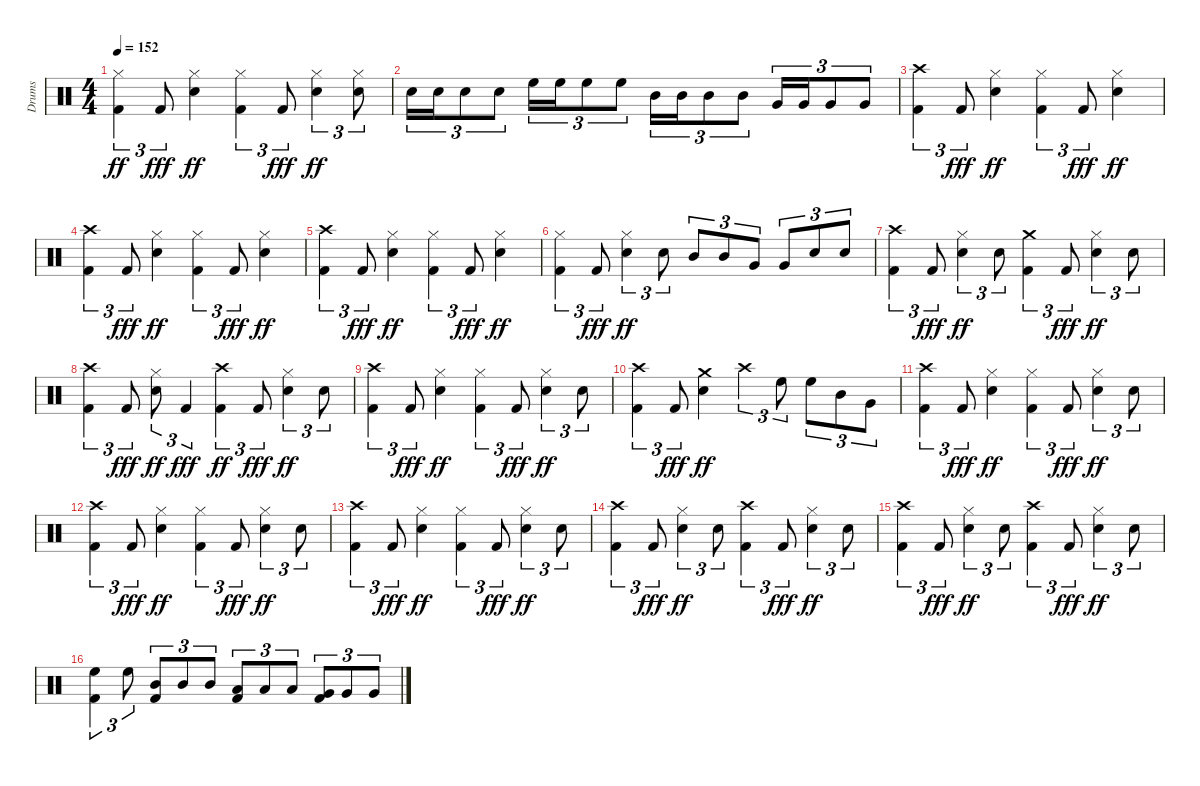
\track ("Drums" "Drums") {instrument percussion}
\staff {score}
\articulation defaults
\ts (4 4)
\tempo 152
\clef neutral
\ks c
("Kick (hit) 2" "Hi-Hat (closed)").4{tu (3 2) dy ff} "Kick (hit) 2".8{tu (3 2) dy fff} ("Snare (hit) 2" "Hi-Hat (closed)").4{dy ff} ("Kick (hit) 2" "Hi-Hat (closed)").4{tu (3 2)} "Kick (hit) 2".8{tu (3 2) dy fff} ("Snare (hit) 2" "Hi-Hat (closed)").4{tu (3 2) dy ff} ("Snare (hit) 2" "Hi-Hat (closed)").8{tu (3 2)} |
"Snare (hit) 2".16{tu (3 2)} "Snare (hit) 2".16{tu (3 2)} "Snare (hit) 2".8{tu (3 2)} "Snare (hit) 2".8{tu (3 2)} "High Floor Tom (hit)".16{tu (3 2)} "High Floor Tom (hit)".16{tu (3 2)} "High Floor Tom (hit)".8{tu (3 2)} "High Floor Tom (hit)".8{tu (3 2)} "Mid Tom (hit)".16{tu (3 2)} "Mid Tom (hit)".16{tu (3 2)} "Mid Tom (hit)".8{tu (3 2)} "Mid Tom (hit)".8{tu (3 2)} "Very Low Tom (hit)".16{tu (3 2)} "Very Low Tom (hit)".16{tu (3 2)} "Very Low Tom (hit)".8{tu (3 2)} "Very Low Tom (hit)".8{tu (3 2)} |
("Kick (hit) 2" "Crash high (hit)").4{tu (3 2)} "Kick (hit) 2".8{tu (3 2) dy fff} ("Snare (hit) 2" "Hi-Hat (closed)").4{dy ff} ("Kick (hit) 2" "Hi-Hat (closed)").4{tu (3 2)} "Kick (hit) 2".8{tu (3 2) dy fff} ("Snare (hit) 2" "Hi-Hat (closed)").4{dy ff} |
("Kick (hit) 2" "Crash high (hit)").4{tu (3 2)} "Kick (hit) 2".8{tu (3 2) dy fff} ("Snare (hit) 2" "Hi-Hat (closed)").4{dy ff} ("Kick (hit) 2" "Hi-Hat (closed)").4{tu (3 2)} "Kick (hit) 2".8{tu (3 2) dy fff} ("Snare (hit) 2" "Hi-Hat (closed)").4{dy ff} |
("Kick (hit) 2" "Crash high (hit)").4{tu (3 2)} "Kick (hit) 2".8{tu (3 2) dy fff} ("Snare (hit) 2" "Hi-Hat (closed)").4{dy ff} ("Kick (hit) 2" "Hi-Hat (closed)").4{tu (3 2)} "Kick (hit) 2".8{tu (3 2) dy fff} ("Snare (hit) 2" "Hi-Hat (closed)").4{dy ff} |
("Kick (hit) 2" "Hi-Hat (closed)").4{tu (3 2)} "Kick (hit) 2".8{tu (3 2) dy fff} ("Snare (hit) 2" "Hi-Hat (closed)").4{tu (3 2) dy ff} "Snare (hit) 2".8{tu (3 2)} "Mid Tom (hit)".8{tu (3 2)} "Mid Tom (hit)".8{tu (3 2)} "Very Low Tom (hit)".8{tu (3 2)} "Very Low Tom (hit)".8{tu (3 2)} "Snare (hit) 2".8{tu (3 2)} "Snare (hit) 2".8{tu (3 2)} |
("Kick (hit) 2" "Crash high (hit)").4{tu (3 2)} "Kick (hit) 2".8{tu (3 2) dy fff} ("Snare (hit) 2" "Hi-Hat (closed)").4{tu (3 2) dy ff} "Snare (hit) 2".8{tu (3 2)} ("Kick (hit) 2" "Crash medium (hit)").4{tu (3 2)} "Kick (hit) 2".8{tu (3 2) dy fff} ("Snare (hit) 2" "Hi-Hat (closed)").4{tu (3 2) dy ff} "Snare (hit) 2".8{tu (3 2)} |
("Kick (hit) 2" "Crash high (hit)").4{tu (3 2)} "Kick (hit) 2".8{tu (3 2) dy fff} ("Snare (hit) 2" "Hi-Hat (closed)").8{tu (3 2) dy ff} "Kick (hit) 2".4{tu (3 2) dy fff} ("Kick (hit) 2" "Crash high (hit)").4{tu (3 2) dy ff} "Kick (hit) 2".8{tu (3 2) dy fff} ("Snare (hit) 2" "Hi-Hat (closed)").4{tu (3 2) dy ff} "Snare (hit) 2".8{tu (3 2)} |
("Kick (hit) 2" "Crash high (hit)").4{tu (3 2)} "Kick (hit) 2".8{tu (3 2) dy fff} ("Snare (hit) 2" "Hi-Hat (closed)").4{dy ff} ("Kick (hit) 2" "Hi-Hat (closed)").4{tu (3 2)} "Kick (hit) 2".8{tu (3 2) dy fff} ("Hi-Hat (closed)" "Snare (hit) 2").4{tu (3 2) dy ff} "Snare (hit) 2".8{tu (3 2)} |
("Kick (hit) 2" "Crash high (hit)").4{tu (3 2)} "Kick (hit) 2".8{tu (3 2) dy fff} ("Snare (hit) 2" "Crash medium (hit)").4{dy ff} "Crash high (hit)".4{tu (3 2)} "High Floor Tom (hit)".8{tu (3 2)} "High Floor Tom (hit)".8{tu (3 2)} "Mid Tom (hit)".8{tu (3 2)} "Very Low Tom (hit)".8{tu (3 2)} |
("Kick (hit) 2" "Crash high (hit)").4{tu (3 2)} "Kick (hit) 2".8{tu (3 2) dy fff} ("Snare (hit) 2" "Hi-Hat (closed)").4{dy ff} ("Kick (hit) 2" "Hi-Hat (closed)").4{tu (3 2)} "Kick (hit) 2".8{tu (3 2) dy fff} ("Snare (hit) 2" "Hi-Hat (closed)").4{tu (3 2) dy ff} "Snare (hit) 2".8{tu (3 2)} |
("Kick (hit) 2" "Crash high (hit)").4{tu (3 2)} "Kick (hit) 2".8{tu (3 2) dy fff} ("Snare (hit) 2" "Hi-Hat (closed)").4{dy ff} ("Kick (hit) 2" "Hi-Hat (closed)").4{tu (3 2)} "Kick (hit) 2".8{tu (3 2) dy fff} ("Snare (hit) 2" "Hi-Hat (closed)").4{tu (3 2) dy ff} "Snare (hit) 2".8{tu (3 2)} |
("Kick (hit) 2" "Crash high (hit)").4{tu (3 2)} "Kick (hit) 2".8{tu (3 2) dy fff} ("Snare (hit) 2" "Hi-Hat (closed)").4{dy ff} ("Kick (hit) 2" "Hi-Hat (closed)").4{tu (3 2)} "Kick (hit) 2".8{tu (3 2) dy fff} ("Snare (hit) 2" "Hi-Hat (closed)").4{tu (3 2) dy ff} "Snare (hit) 2".8{tu (3 2)} |
("Kick (hit) 2" "Crash high (hit)").4{tu (3 2)} "Kick (hit) 2".8{tu (3 2) dy fff} ("Snare (hit) 2" "Hi-Hat (closed)").4{tu (3 2) dy ff} "Snare (hit) 2".8{tu (3 2)} ("Kick (hit) 2" "Crash high (hit)").4{tu (3 2)} "Kick (hit) 2".8{tu (3 2) dy fff} ("Snare (hit) 2" "Hi-Hat (closed)").4{tu (3 2) dy ff} "Snare (hit) 2".8{tu (3 2)} |
("Kick (hit) 2" "Crash high (hit)").4{tu (3 2)} "Kick (hit) 2".8{tu (3 2) dy fff} ("Snare (hit) 2" "Hi-Hat (closed)").4{tu (3 2) dy ff} "Snare (hit) 2".8{tu (3 2)} ("Kick (hit) 2" "Crash high (hit)").4{tu (3 2)} "Kick (hit) 2".8{tu (3 2) dy fff} ("Snare (hit) 2" "Hi-Hat (closed)").4{tu (3 2) dy ff} "Snare (hit) 2".8{tu (3 2)} |
("Kick (hit) 2" "High Floor Tom (hit)").4{tu (3 2)} "High Floor Tom (hit)".8{tu (3 2)} ("Kick (hit) 2" "Mid Tom (hit)").8{tu (3 2)} "Mid Tom (hit)".8{tu (3 2)} "Mid Tom (hit)".8{tu (3 2)} ("Kick (hit) 2" "Low Tom (hit)").8{tu (3 2)} "Low Tom (hit)".8{tu (3 2)} "Low Tom (hit)".8{tu (3 2)} ("Kick (hit) 2" "Very Low Tom (hit)").8{tu (3 2)} "Very Low Tom (hit)".8{tu (3 2)} "Very Low Tom (hit)".8{tu (3 2)}
